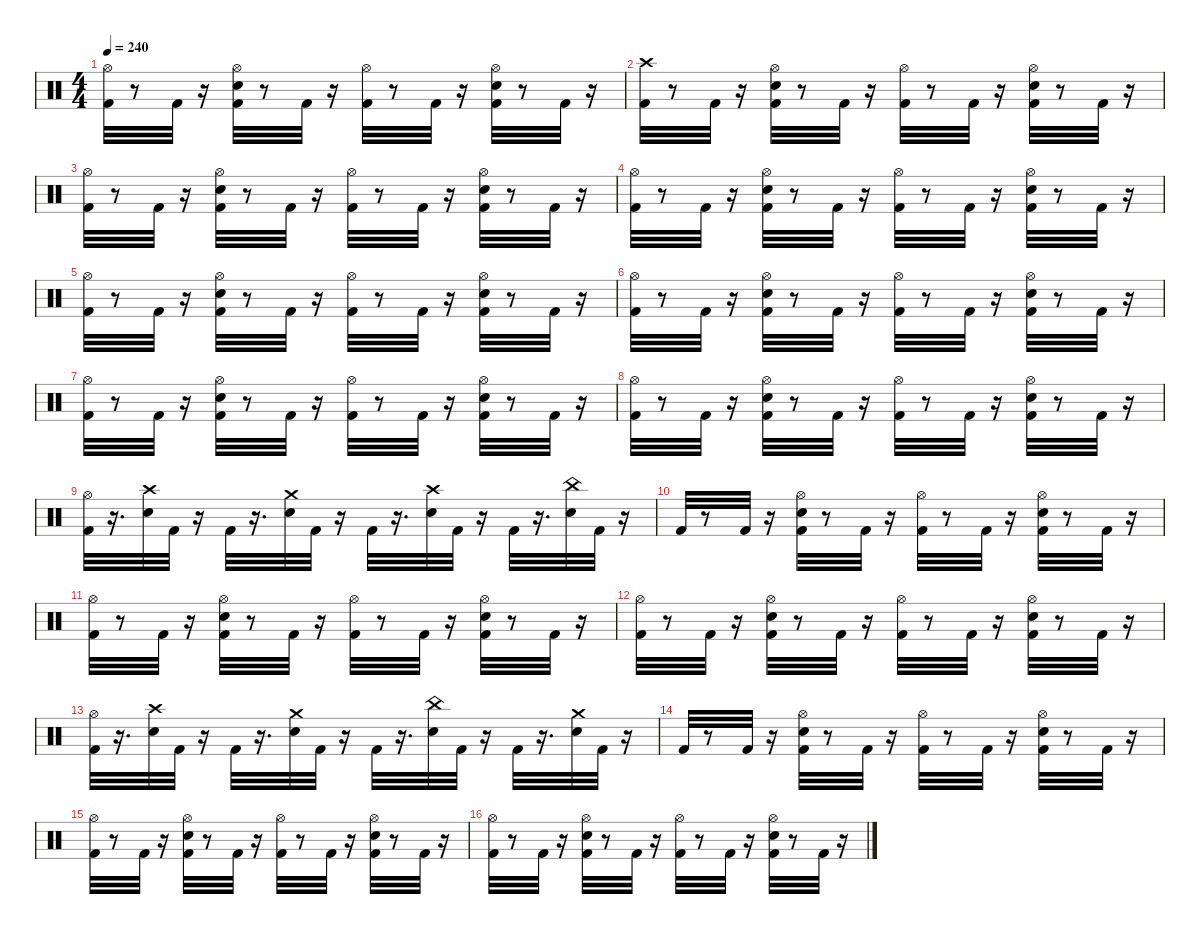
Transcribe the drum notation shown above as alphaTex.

\defaultSystemsLayout 4
\hideDynamics
\bracketExtendMode nobrackets
\singleTrackTrackNamePolicy hidden
\multiTrackTrackNamePolicy hidden
\otherSystemsTrackNameOrientation horizontal
\track ("Drums" "drm.") {instrument percussion}
\staff {score}
\articulation defaults
\ts (4 4)
\tempo 240
\clef neutral
\ks c
("Hi-Hat (open)" "Kick (hit) 2").32{dy f} r.8 "Kick (hit) 2".32 r.16 ("Kick (hit) 2" "Hi-Hat (open)" "Snare (hit) 2").32 r.8 "Kick (hit) 2".32 r.16 ("Hi-Hat (open)" "Kick (hit) 2").32 r.8 "Kick (hit) 2".32 r.16 ("Kick (hit) 2" "Hi-Hat (open)" "Snare (hit) 2").32 r.8 "Kick (hit) 2".32 r.16 |
("Crash high (hit)" "Kick (hit) 2").32 r.8 "Kick (hit) 2".32 r.16 ("Snare (hit) 2" "Hi-Hat (open)" "Kick (hit) 2").32 r.8 "Kick (hit) 2".32 r.16 ("Hi-Hat (open)" "Kick (hit) 2").32 r.8 "Kick (hit) 2".32 r.16 ("Kick (hit) 2" "Hi-Hat (open)" "Snare (hit) 2").32 r.8 "Kick (hit) 2".32 r.16 |
("Kick (hit) 2" "Hi-Hat (open)").32 r.8 "Kick (hit) 2".32 r.16 ("Kick (hit) 2" "Hi-Hat (open)" "Snare (hit) 2").32 r.8 "Kick (hit) 2".32 r.16 ("Hi-Hat (open)" "Kick (hit) 2").32 r.8 "Kick (hit) 2".32 r.16 ("Snare (hit) 2" "Kick (hit) 2" "Hi-Hat (open)").32 r.8 "Kick (hit) 2".32 r.16 |
("Hi-Hat (open)" "Kick (hit) 2").32 r.8 "Kick (hit) 2".32 r.16 ("Snare (hit) 2" "Hi-Hat (open)" "Kick (hit) 2").32 r.8 "Kick (hit) 2".32 r.16 ("Kick (hit) 2" "Hi-Hat (open)").32 r.8 "Kick (hit) 2".32 r.16 ("Snare (hit) 2" "Hi-Hat (open)" "Kick (hit) 2").32 r.8 "Kick (hit) 2".32 r.16 |
("Hi-Hat (open)" "Kick (hit) 2").32 r.8 "Kick (hit) 2".32 r.16 ("Snare (hit) 2" "Kick (hit) 2" "Hi-Hat (open)").32 r.8 "Kick (hit) 2".32 r.16 ("Kick (hit) 2" "Hi-Hat (open)").32 r.8 "Kick (hit) 2".32 r.16 ("Snare (hit) 2" "Kick (hit) 2" "Hi-Hat (open)").32 r.8 "Kick (hit) 2".32 r.16 |
("Kick (hit) 2" "Hi-Hat (open)").32 r.8 "Kick (hit) 2".32 r.16 ("Snare (hit) 2" "Kick (hit) 2" "Hi-Hat (open)").32 r.8 "Kick (hit) 2".32 r.16 ("Kick (hit) 2" "Hi-Hat (open)").32 r.8 "Kick (hit) 2".32 r.16 ("Snare (hit) 2" "Hi-Hat (open)" "Kick (hit) 2").32 r.8 "Kick (hit) 2".32 r.16 |
("Hi-Hat (open)" "Kick (hit) 2").32 r.8 "Kick (hit) 2".32 r.16 ("Snare (hit) 2" "Kick (hit) 2" "Hi-Hat (open)").32 r.8 "Kick (hit) 2".32 r.16 ("Kick (hit) 2" "Hi-Hat (open)").32 r.8 "Kick (hit) 2".32 r.16 ("Hi-Hat (open)" "Kick (hit) 2" "Snare (hit) 2").32 r.8 "Kick (hit) 2".32 r.16 |
("Hi-Hat (open)" "Kick (hit) 2").32 r.8 "Kick (hit) 2".32 r.16 ("Snare (hit) 2" "Hi-Hat (open)" "Kick (hit) 2").32 r.8 "Kick (hit) 2".32 r.16 ("Hi-Hat (open)" "Kick (hit) 2").32 r.8 "Kick (hit) 2".32 r.16 ("Kick (hit) 2" "Snare (hit) 2" "Hi-Hat (open)").32 r.8 "Kick (hit) 2".32 r.16 |
("Hi-Hat (open)" "Kick (hit) 2").32 r.16{d} ("Crash high (hit)" "Snare (hit) 2").32 "Kick (hit) 2".32 r.16 "Kick (hit) 2".32 r.16{d} ("Snare (hit) 2" "Crash medium (hit)").32 "Kick (hit) 2".32 r.16 "Kick (hit) 2".32 r.16{d} ("Crash high (hit)" "Snare (hit) 2").32 "Kick (hit) 2".32 r.16 "Kick (hit) 2".32 r.16{d} ("China (hit)" "Snare (hit) 2").32 "Kick (hit) 2".32 r.16 |
"Kick (hit) 2".32 r.8 "Kick (hit) 2".32 r.16 ("Hi-Hat (open)" "Snare (hit) 2" "Kick (hit) 2").32 r.8 "Kick (hit) 2".32 r.16 ("Hi-Hat (open)" "Kick (hit) 2").32 r.8 "Kick (hit) 2".32 r.16 ("Hi-Hat (open)" "Snare (hit) 2" "Kick (hit) 2").32 r.8 "Kick (hit) 2".32 r.16 |
("Hi-Hat (open)" "Kick (hit) 2").32 r.8 "Kick (hit) 2".32 r.16 ("Kick (hit) 2" "Snare (hit) 2" "Hi-Hat (open)").32 r.8 "Kick (hit) 2".32 r.16 ("Hi-Hat (open)" "Kick (hit) 2").32 r.8 "Kick (hit) 2".32 r.16 ("Kick (hit) 2" "Snare (hit) 2" "Hi-Hat (open)").32 r.8 "Kick (hit) 2".32 r.16 |
("Hi-Hat (open)" "Kick (hit) 2").32 r.8 "Kick (hit) 2".32 r.16 ("Hi-Hat (open)" "Snare (hit) 2" "Kick (hit) 2").32 r.8 "Kick (hit) 2".32 r.16 ("Hi-Hat (open)" "Kick (hit) 2").32 r.8 "Kick (hit) 2".32 r.16 ("Kick (hit) 2" "Hi-Hat (open)" "Snare (hit) 2").32 r.8 "Kick (hit) 2".32 r.16 |
("Kick (hit) 2" "Hi-Hat (open)").32 r.16{d} ("Crash high (hit)" "Snare (hit) 2").32 "Kick (hit) 2".32 r.16 "Kick (hit) 2".32 r.16{d} ("Snare (hit) 2" "Crash medium (hit)").32 "Kick (hit) 2".32 r.16 "Kick (hit) 2".32 r.16{d} ("China (hit)" "Snare (hit) 2").32 "Kick (hit) 2".32 r.16 "Kick (hit) 2".32 r.16{d} ("Snare (hit) 2" "Crash medium (hit)").32 "Kick (hit) 2".32 r.16 |
"Kick (hit) 2".32 r.8 "Kick (hit) 2".32 r.16 ("Hi-Hat (open)" "Kick (hit) 2" "Snare (hit) 2").32 r.8 "Kick (hit) 2".32 r.16 ("Kick (hit) 2" "Hi-Hat (open)").32 r.8 "Kick (hit) 2".32 r.16 ("Hi-Hat (open)" "Kick (hit) 2" "Snare (hit) 2").32 r.8 "Kick (hit) 2".32 r.16 |
("Kick (hit) 2" "Hi-Hat (open)").32 r.8 "Kick (hit) 2".32 r.16 ("Hi-Hat (open)" "Kick (hit) 2" "Snare (hit) 2").32 r.8 "Kick (hit) 2".32 r.16 ("Hi-Hat (open)" "Kick (hit) 2").32 r.8 "Kick (hit) 2".32 r.16 ("Kick (hit) 2" "Hi-Hat (open)" "Snare (hit) 2").32 r.8 "Kick (hit) 2".32 r.16 |
("Hi-Hat (open)" "Kick (hit) 2").32 r.8 "Kick (hit) 2".32 r.16 ("Kick (hit) 2" "Hi-Hat (open)" "Snare (hit) 2").32 r.8 "Kick (hit) 2".32 r.16 ("Hi-Hat (open)" "Kick (hit) 2").32 r.8 "Kick (hit) 2".32 r.16 ("Snare (hit) 2" "Hi-Hat (open)" "Kick (hit) 2").32 r.8 "Kick (hit) 2".32 r.16
